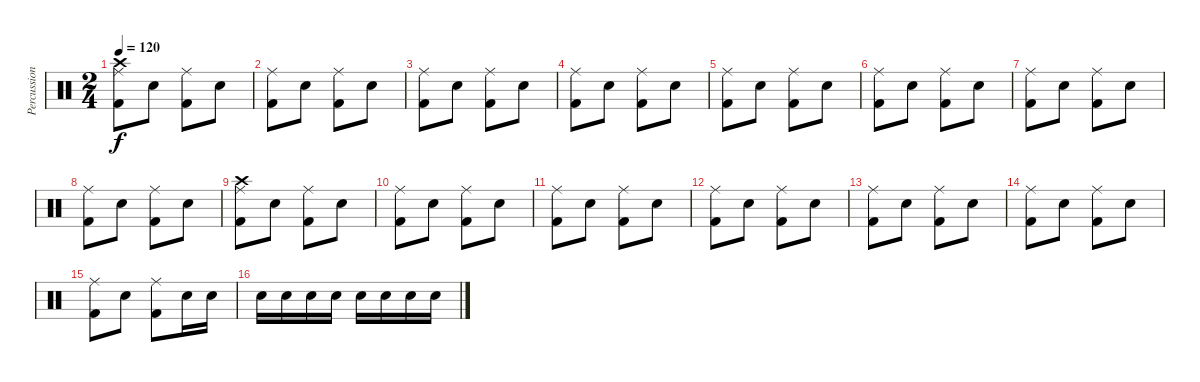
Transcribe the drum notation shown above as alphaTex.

\track ("Percussion" "Percussion") {instrument percussion}
\staff {score}
\articulation defaults
\ts (2 4)
\tempo 120
\clef neutral
\ks c
("Crash high (hit)" "Ride (middle)" "Kick (hit) 2").8{dy f} "Snare (hit) 2".8 ("Ride (middle)" "Kick (hit) 2").8 "Snare (hit) 2".8 |
("Ride (middle)" "Kick (hit) 2").8 "Snare (hit) 2".8 ("Ride (middle)" "Kick (hit) 2").8 "Snare (hit) 2".8 |
("Ride (middle)" "Kick (hit) 2").8 "Snare (hit) 2".8 ("Ride (middle)" "Kick (hit) 2").8 "Snare (hit) 2".8 |
("Ride (middle)" "Kick (hit) 2").8 "Snare (hit) 2".8 ("Ride (middle)" "Kick (hit) 2").8 "Snare (hit) 2".8 |
("Ride (middle)" "Kick (hit) 2").8 "Snare (hit) 2".8 ("Ride (middle)" "Kick (hit) 2").8 "Snare (hit) 2".8 |
("Ride (middle)" "Kick (hit) 2").8 "Snare (hit) 2".8 ("Ride (middle)" "Kick (hit) 2").8 "Snare (hit) 2".8 |
("Ride (middle)" "Kick (hit) 2").8 "Snare (hit) 2".8 ("Ride (middle)" "Kick (hit) 2").8 "Snare (hit) 2".8 |
("Ride (middle)" "Kick (hit) 2").8 "Snare (hit) 2".8 ("Ride (middle)" "Kick (hit) 2").8 "Snare (hit) 2".8 |
("Crash high (hit)" "Ride (middle)" "Kick (hit) 2").8 "Snare (hit) 2".8 ("Ride (middle)" "Kick (hit) 2").8 "Snare (hit) 2".8 |
("Ride (middle)" "Kick (hit) 2").8 "Snare (hit) 2".8 ("Ride (middle)" "Kick (hit) 2").8 "Snare (hit) 2".8 |
("Ride (middle)" "Kick (hit) 2").8 "Snare (hit) 2".8 ("Ride (middle)" "Kick (hit) 2").8 "Snare (hit) 2".8 |
("Ride (middle)" "Kick (hit) 2").8 "Snare (hit) 2".8 ("Ride (middle)" "Kick (hit) 2").8 "Snare (hit) 2".8 |
("Ride (middle)" "Kick (hit) 2").8 "Snare (hit) 2".8 ("Ride (middle)" "Kick (hit) 2").8 "Snare (hit) 2".8 |
("Ride (middle)" "Kick (hit) 2").8 "Snare (hit) 2".8 ("Ride (middle)" "Kick (hit) 2").8 "Snare (hit) 2".8 |
("Ride (middle)" "Kick (hit) 2").8 "Snare (hit) 2".8 ("Ride (middle)" "Kick (hit) 2").8 "Snare (hit) 2".16 "Snare (hit) 2".16 |
"Electric Snare (hit)".16 "Electric Snare (hit)".16 "Electric Snare (hit)".16 "Electric Snare (hit)".16 "Electric Snare (hit)".16 "Electric Snare (hit)".16 "Electric Snare (hit)".16 "Electric Snare (hit)".16
